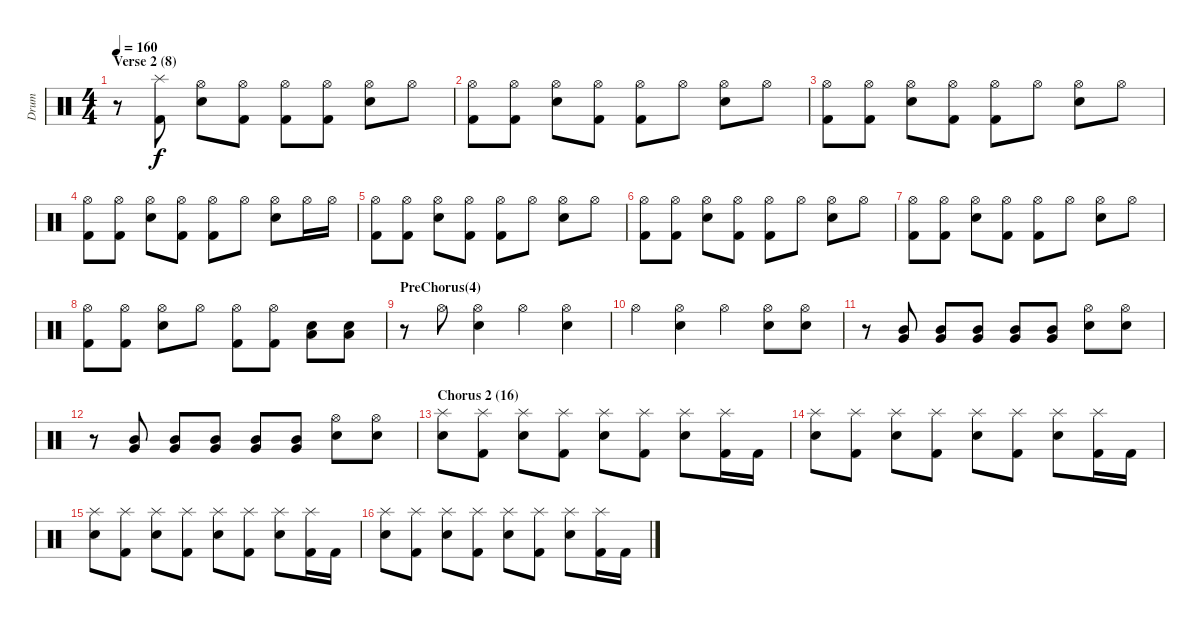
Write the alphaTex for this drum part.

\track ("Drum" "Drum") {instrument percussion}
\staff {score}
\articulation defaults
\ts (4 4)
\section ("" "Verse 2 (8)")
\tempo 160
\clef neutral
\ks c
r.8{dy f} ("Splash (hit)" "Kick (hit) 2").8 ("Hi-Hat (open)" "Snare (hit) 2").8 ("Hi-Hat (open)" "Kick (hit) 2").8 ("Hi-Hat (open)" "Kick (hit) 2").8 ("Hi-Hat (open)" "Kick (hit) 2").8 ("Hi-Hat (open)" "Snare (hit) 2").8 "Hi-Hat (open)".8 |
("Hi-Hat (open)" "Kick (hit) 2").8 ("Hi-Hat (open)" "Kick (hit) 2").8 ("Hi-Hat (open)" "Snare (hit) 2").8 ("Hi-Hat (open)" "Kick (hit) 2").8 ("Hi-Hat (open)" "Kick (hit) 2").8 "Hi-Hat (open)".8 ("Hi-Hat (open)" "Snare (hit) 2").8 "Hi-Hat (open)".8 |
("Hi-Hat (open)" "Kick (hit) 2").8 ("Hi-Hat (open)" "Kick (hit) 2").8 ("Hi-Hat (open)" "Snare (hit) 2").8 ("Hi-Hat (open)" "Kick (hit) 2").8 ("Hi-Hat (open)" "Kick (hit) 2").8 "Hi-Hat (open)".8 ("Hi-Hat (open)" "Snare (hit) 2").8 "Hi-Hat (open)".8 |
("Hi-Hat (open)" "Kick (hit) 2").8 ("Hi-Hat (open)" "Kick (hit) 2").8 ("Hi-Hat (open)" "Snare (hit) 2").8 ("Hi-Hat (open)" "Kick (hit) 2").8 ("Hi-Hat (open)" "Kick (hit) 2").8 "Hi-Hat (open)".8 ("Hi-Hat (open)" "Snare (hit) 2").8 "Hi-Hat (open)".16 "Hi-Hat (open)".16 |
("Hi-Hat (open)" "Kick (hit) 2").8 ("Hi-Hat (open)" "Kick (hit) 2").8 ("Hi-Hat (open)" "Snare (hit) 2").8 ("Hi-Hat (open)" "Kick (hit) 2").8 ("Hi-Hat (open)" "Kick (hit) 2").8 "Hi-Hat (open)".8 ("Hi-Hat (open)" "Snare (hit) 2").8 "Hi-Hat (open)".8 |
("Hi-Hat (open)" "Kick (hit) 2").8 ("Hi-Hat (open)" "Kick (hit) 2").8 ("Hi-Hat (open)" "Snare (hit) 2").8 ("Hi-Hat (open)" "Kick (hit) 2").8 ("Hi-Hat (open)" "Kick (hit) 2").8 "Hi-Hat (open)".8 ("Hi-Hat (open)" "Snare (hit) 2").8 "Hi-Hat (open)".8 |
("Hi-Hat (open)" "Kick (hit) 2").8 ("Hi-Hat (open)" "Kick (hit) 2").8 ("Hi-Hat (open)" "Snare (hit) 2").8 ("Hi-Hat (open)" "Kick (hit) 2").8 ("Hi-Hat (open)" "Kick (hit) 2").8 "Hi-Hat (open)".8 ("Hi-Hat (open)" "Snare (hit) 2").8 "Hi-Hat (open)".8 |
("Hi-Hat (open)" "Kick (hit) 2").8 ("Hi-Hat (open)" "Kick (hit) 2").8 ("Hi-Hat (open)" "Snare (hit) 2").8 "Hi-Hat (open)".8 ("Hi-Hat (open)" "Kick (hit) 2").8 ("Hi-Hat (open)" "Kick (hit) 2").8 ("Low Floor Tom (hit)" "Snare (hit) 2").8 ("Low Floor Tom (hit)" "Snare (hit) 2").8 |
\section ("" "PreChorus(4)")
r.8 "Hi-Hat (open)".8 ("Hi-Hat (open)" "Snare (hit) 2").4 "Hi-Hat (open)".4 ("Hi-Hat (open)" "Snare (hit) 2").4 |
"Hi-Hat (open)".4 ("Hi-Hat (open)" "Snare (hit) 2").4 "Hi-Hat (open)".4 ("Hi-Hat (open)" "Snare (hit) 2").8 ("Hi-Hat (open)" "Snare (hit) 2").8 |
r.8 ("Mid Tom (hit)" "Very Low Tom (hit)").8 ("Mid Tom (hit)" "Very Low Tom (hit)").8 ("Mid Tom (hit)" "Very Low Tom (hit)").8 ("Mid Tom (hit)" "Very Low Tom (hit)").8 ("Mid Tom (hit)" "Very Low Tom (hit)").8 ("Hi-Hat (open)" "Snare (hit) 2").8 ("Hi-Hat (open)" "Snare (hit) 2").8 |
r.8 ("Mid Tom (hit)" "Very Low Tom (hit)").8 ("Mid Tom (hit)" "Very Low Tom (hit)").8 ("Mid Tom (hit)" "Very Low Tom (hit)").8 ("Mid Tom (hit)" "Very Low Tom (hit)").8 ("Mid Tom (hit)" "Very Low Tom (hit)").8 ("Hi-Hat (open)" "Snare (hit) 2").8 ("Hi-Hat (open)" "Snare (hit) 2").8 |
\section ("" "Chorus 2 (16)")
("Splash (hit)" "Snare (hit) 2").8 ("Splash (hit)" "Kick (hit) 2").8 ("Splash (hit)" "Snare (hit) 2").8 ("Splash (hit)" "Kick (hit) 2").8 ("Splash (hit)" "Snare (hit) 2").8 ("Splash (hit)" "Kick (hit) 2").8 ("Splash (hit)" "Snare (hit) 2").8 ("Splash (hit)" "Kick (hit) 2").16 "Kick (hit) 2".16 |
("Splash (hit)" "Snare (hit) 2").8 ("Splash (hit)" "Kick (hit) 2").8 ("Splash (hit)" "Snare (hit) 2").8 ("Splash (hit)" "Kick (hit) 2").8 ("Splash (hit)" "Snare (hit) 2").8 ("Splash (hit)" "Kick (hit) 2").8 ("Splash (hit)" "Snare (hit) 2").8 ("Splash (hit)" "Kick (hit) 2").16 "Kick (hit) 2".16 |
("Splash (hit)" "Snare (hit) 2").8 ("Splash (hit)" "Kick (hit) 2").8 ("Splash (hit)" "Snare (hit) 2").8 ("Splash (hit)" "Kick (hit) 2").8 ("Splash (hit)" "Snare (hit) 2").8 ("Splash (hit)" "Kick (hit) 2").8 ("Splash (hit)" "Snare (hit) 2").8 ("Splash (hit)" "Kick (hit) 2").16 "Kick (hit) 2".16 |
("Splash (hit)" "Snare (hit) 2").8 ("Splash (hit)" "Kick (hit) 2").8 ("Splash (hit)" "Snare (hit) 2").8 ("Splash (hit)" "Kick (hit) 2").8 ("Splash (hit)" "Snare (hit) 2").8 ("Splash (hit)" "Kick (hit) 2").8 ("Splash (hit)" "Snare (hit) 2").8 ("Splash (hit)" "Kick (hit) 2").16 "Kick (hit) 2".16
